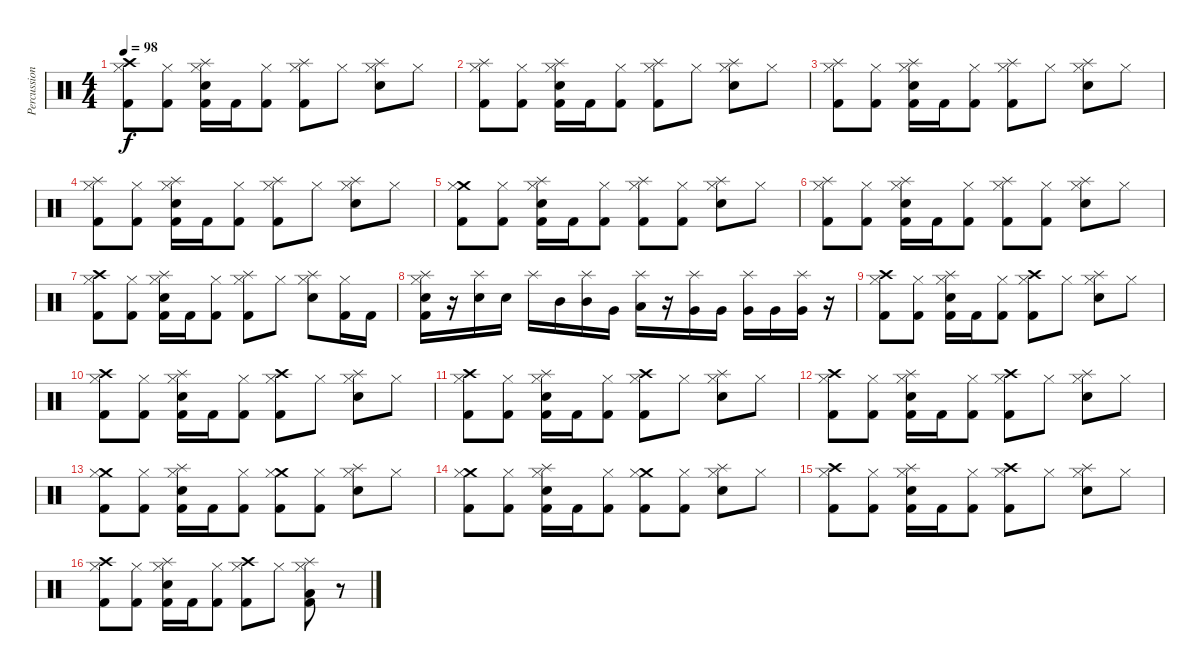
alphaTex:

\track ("Percussion" "Percussion") {instrument percussion}
\staff {score}
\articulation defaults
\ts (4 4)
\tempo 98
\clef neutral
\ks c
("Crash high (hit)" "Hi-Hat (closed)" "Kick (hit) 2").8{dy f} ("Hi-Hat (closed)" "Kick (hit) 2").8 ("Splash (hit)" "Hi-Hat (closed)" "Electric Snare (hit)" "Kick (hit) 2").16 "Kick (hit) 2".16 ("Hi-Hat (closed)" "Kick (hit) 2").8 ("Splash (hit)" "Hi-Hat (closed)" "Kick (hit) 2").8 "Hi-Hat (closed)".8 ("Splash (hit)" "Hi-Hat (closed)" "Electric Snare (hit)").8 "Hi-Hat (closed)".8 |
("Splash (hit)" "Hi-Hat (closed)" "Kick (hit) 2").8 ("Hi-Hat (closed)" "Kick (hit) 2").8 ("Splash (hit)" "Hi-Hat (closed)" "Electric Snare (hit)" "Kick (hit) 2").16 "Kick (hit) 2".16 ("Hi-Hat (closed)" "Kick (hit) 2").8 ("Splash (hit)" "Hi-Hat (closed)" "Kick (hit) 2").8 "Hi-Hat (closed)".8 ("Splash (hit)" "Hi-Hat (closed)" "Electric Snare (hit)").8 "Hi-Hat (closed)".8 |
("Splash (hit)" "Hi-Hat (closed)" "Kick (hit) 2").8 ("Hi-Hat (closed)" "Kick (hit) 2").8 ("Splash (hit)" "Hi-Hat (closed)" "Electric Snare (hit)" "Kick (hit) 2").16 "Kick (hit) 2".16 ("Hi-Hat (closed)" "Kick (hit) 2").8 ("Splash (hit)" "Hi-Hat (closed)" "Kick (hit) 2").8 "Hi-Hat (closed)".8 ("Splash (hit)" "Hi-Hat (closed)" "Electric Snare (hit)").8 "Hi-Hat (closed)".8 |
("Splash (hit)" "Hi-Hat (closed)" "Kick (hit) 2").8 ("Hi-Hat (closed)" "Kick (hit) 2").8 ("Splash (hit)" "Hi-Hat (closed)" "Electric Snare (hit)" "Kick (hit) 2").16 "Kick (hit) 2".16 ("Hi-Hat (closed)" "Kick (hit) 2").8 ("Splash (hit)" "Hi-Hat (closed)" "Kick (hit) 2").8 "Hi-Hat (closed)".8 ("Splash (hit)" "Hi-Hat (closed)" "Electric Snare (hit)").8 "Hi-Hat (closed)".8 |
("Crash medium (hit)" "Hi-Hat (closed)" "Kick (hit) 2").8 ("Hi-Hat (closed)" "Kick (hit) 2").8 ("Splash (hit)" "Hi-Hat (closed)" "Electric Snare (hit)" "Kick (hit) 2").16 "Kick (hit) 2".16 ("Hi-Hat (closed)" "Kick (hit) 2").8 ("Splash (hit)" "Hi-Hat (closed)" "Kick (hit) 2").8 ("Hi-Hat (closed)" "Kick (hit) 2").8 ("Splash (hit)" "Hi-Hat (closed)" "Electric Snare (hit)").8 "Hi-Hat (closed)".8 |
("Splash (hit)" "Hi-Hat (closed)" "Kick (hit) 2").8 ("Hi-Hat (closed)" "Kick (hit) 2").8 ("Splash (hit)" "Hi-Hat (closed)" "Electric Snare (hit)" "Kick (hit) 2").16 "Kick (hit) 2".16 ("Hi-Hat (closed)" "Kick (hit) 2").8 ("Splash (hit)" "Hi-Hat (closed)" "Kick (hit) 2").8 ("Hi-Hat (closed)" "Kick (hit) 2").8 ("Splash (hit)" "Hi-Hat (closed)" "Electric Snare (hit)").8 "Hi-Hat (closed)".8 |
("Crash high (hit)" "Hi-Hat (closed)" "Kick (hit) 2").8 ("Hi-Hat (closed)" "Kick (hit) 2").8 ("Splash (hit)" "Hi-Hat (closed)" "Electric Snare (hit)" "Kick (hit) 2").16 "Kick (hit) 2".16 ("Hi-Hat (closed)" "Kick (hit) 2").8 ("Splash (hit)" "Hi-Hat (closed)" "Kick (hit) 2").8 "Hi-Hat (closed)".8 ("Splash (hit)" "Hi-Hat (closed)" "Electric Snare (hit)").8 ("Hi-Hat (closed)" "Kick (hit) 2").16 "Kick (hit) 2".16 |
("Splash (hit)" "Hi-Hat (closed)" "Electric Snare (hit)" "Kick (hit) 2").16 r.16 ("Splash (hit)" "Electric Snare (hit)").16 "Electric Snare (hit)".16 "Splash (hit)".16 "Mid Tom (hit)".16 ("Splash (hit)" "Mid Tom (hit)").16 "Very Low Tom (hit)".16 ("Splash (hit)" "Low Tom (hit)").16 r.16 ("Splash (hit)" "Very Low Tom (hit)").16 "Very Low Tom (hit)".16 ("Splash (hit)" "Very Low Tom (hit)").16 "Very Low Tom (hit)".16 ("Splash (hit)" "Very Low Tom (hit)").16 r.16 |
("Crash high (hit)" "Hi-Hat (closed)" "Kick (hit) 2").8 ("Hi-Hat (closed)" "Kick (hit) 2").8 ("Splash (hit)" "Hi-Hat (closed)" "Electric Snare (hit)" "Kick (hit) 2").16 "Kick (hit) 2".16 ("Hi-Hat (closed)" "Kick (hit) 2").8 ("Crash high (hit)" "Hi-Hat (closed)" "Kick (hit) 2").8 "Hi-Hat (closed)".8 ("Splash (hit)" "Hi-Hat (closed)" "Electric Snare (hit)").8 "Hi-Hat (closed)".8 |
("Crash high (hit)" "Hi-Hat (closed)" "Kick (hit) 2").8 ("Hi-Hat (closed)" "Kick (hit) 2").8 ("Splash (hit)" "Hi-Hat (closed)" "Electric Snare (hit)" "Kick (hit) 2").16 "Kick (hit) 2".16 ("Hi-Hat (closed)" "Kick (hit) 2").8 ("Crash high (hit)" "Hi-Hat (closed)" "Kick (hit) 2").8 "Hi-Hat (closed)".8 ("Splash (hit)" "Hi-Hat (closed)" "Electric Snare (hit)").8 "Hi-Hat (closed)".8 |
("Crash high (hit)" "Hi-Hat (closed)" "Kick (hit) 2").8 ("Hi-Hat (closed)" "Kick (hit) 2").8 ("Splash (hit)" "Hi-Hat (closed)" "Electric Snare (hit)" "Kick (hit) 2").16 "Kick (hit) 2".16 ("Hi-Hat (closed)" "Kick (hit) 2").8 ("Crash high (hit)" "Hi-Hat (closed)" "Kick (hit) 2").8 "Hi-Hat (closed)".8 ("Splash (hit)" "Hi-Hat (closed)" "Electric Snare (hit)").8 "Hi-Hat (closed)".8 |
("Crash high (hit)" "Hi-Hat (closed)" "Kick (hit) 2").8 ("Hi-Hat (closed)" "Kick (hit) 2").8 ("Splash (hit)" "Hi-Hat (closed)" "Electric Snare (hit)" "Kick (hit) 2").16 "Kick (hit) 2".16 ("Hi-Hat (closed)" "Kick (hit) 2").8 ("Crash high (hit)" "Hi-Hat (closed)" "Kick (hit) 2").8 "Hi-Hat (closed)".8 ("Splash (hit)" "Hi-Hat (closed)" "Electric Snare (hit)").8 "Hi-Hat (closed)".8 |
("Crash medium (hit)" "Hi-Hat (closed)" "Kick (hit) 2").8 ("Hi-Hat (closed)" "Kick (hit) 2").8 ("Splash (hit)" "Hi-Hat (closed)" "Electric Snare (hit)" "Kick (hit) 2").16 "Kick (hit) 2".16 ("Hi-Hat (closed)" "Kick (hit) 2").8 ("Crash medium (hit)" "Hi-Hat (closed)" "Kick (hit) 2").8 ("Hi-Hat (closed)" "Kick (hit) 2").8 ("Splash (hit)" "Hi-Hat (closed)" "Electric Snare (hit)").8 "Hi-Hat (closed)".8 |
("Crash medium (hit)" "Hi-Hat (closed)" "Kick (hit) 2").8 ("Hi-Hat (closed)" "Kick (hit) 2").8 ("Splash (hit)" "Hi-Hat (closed)" "Electric Snare (hit)" "Kick (hit) 2").16 "Kick (hit) 2".16 ("Hi-Hat (closed)" "Kick (hit) 2").8 ("Crash medium (hit)" "Hi-Hat (closed)" "Kick (hit) 2").8 ("Hi-Hat (closed)" "Kick (hit) 2").8 ("Splash (hit)" "Hi-Hat (closed)" "Electric Snare (hit)").8 "Hi-Hat (closed)".8 |
("Crash high (hit)" "Hi-Hat (closed)" "Kick (hit) 2").8 ("Hi-Hat (closed)" "Kick (hit) 2").8 ("Splash (hit)" "Hi-Hat (closed)" "Electric Snare (hit)" "Kick (hit) 2").16 "Kick (hit) 2".16 ("Hi-Hat (closed)" "Kick (hit) 2").8 ("Crash high (hit)" "Hi-Hat (closed)" "Kick (hit) 2").8 "Hi-Hat (closed)".8 ("Splash (hit)" "Hi-Hat (closed)" "Electric Snare (hit)").8 "Hi-Hat (closed)".8 |
("Crash high (hit)" "Hi-Hat (closed)" "Kick (hit) 2").8 ("Hi-Hat (closed)" "Kick (hit) 2").8 ("Splash (hit)" "Hi-Hat (closed)" "Electric Snare (hit)" "Kick (hit) 2").16 "Kick (hit) 2".16 ("Hi-Hat (closed)" "Kick (hit) 2").8 ("Crash high (hit)" "Hi-Hat (closed)" "Kick (hit) 2").8 "Hi-Hat (closed)".8 ("Splash (hit)" "Hi-Hat (closed)" "Low Floor Tom (hit)" "Kick (hit) 2").8 r.8
